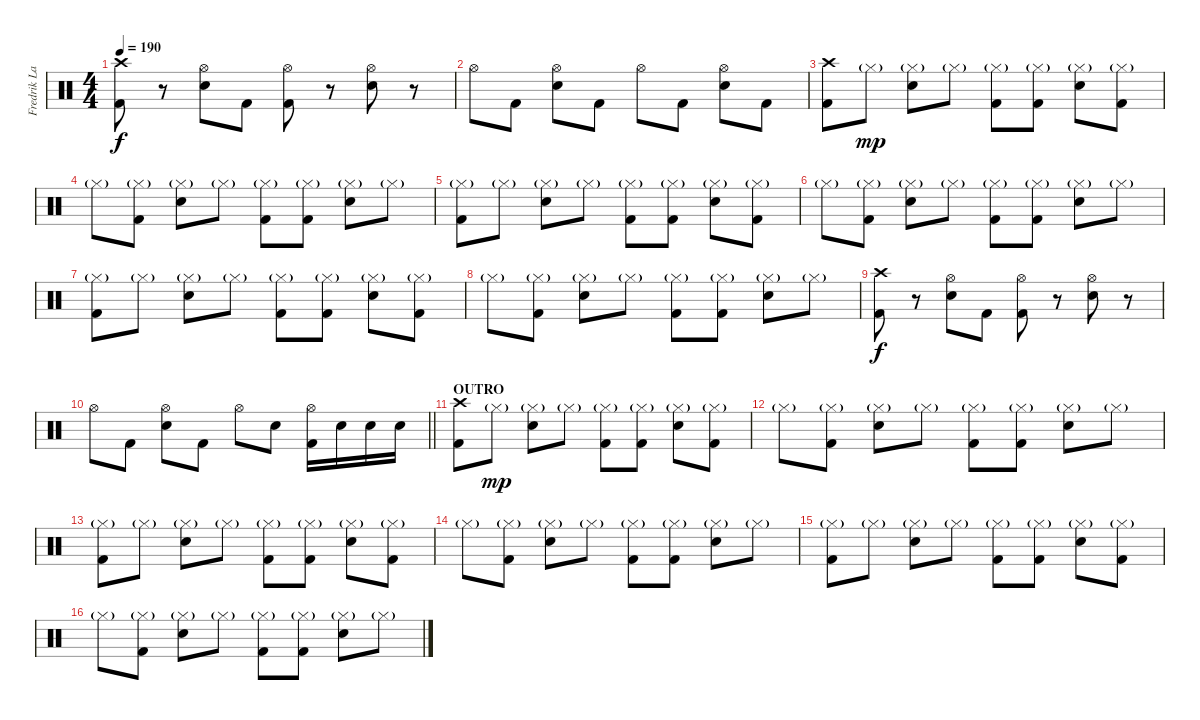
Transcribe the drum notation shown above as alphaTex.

\track ("Fredrik Larson" "Fredrik La") {instrument percussion}
\staff {score}
\articulation defaults
\ts (4 4)
\tempo 190
\clef neutral
\ks c
("Crash high (hit)" "Kick (hit) 2").8{dy f} r.8 ("Hi-Hat (open)" "Snare (hit) 2").8 "Kick (hit) 2".8 ("Hi-Hat (open)" "Kick (hit) 2").8 r.8 ("Hi-Hat (open)" "Snare (hit) 2").8 r.8 |
"Hi-Hat (open)".8 "Kick (hit) 2".8 ("Hi-Hat (open)" "Snare (hit) 2").8 "Kick (hit) 2".8 "Hi-Hat (open)".8 "Kick (hit) 2".8 ("Hi-Hat (open)" "Snare (hit) 2").8 "Kick (hit) 2".8 |
("Crash high (hit)" "Kick (hit) 2").8 "Hi-Hat (closed)"{g}.8{dy mp} ("Hi-Hat (closed)"{g} "Snare (hit) 2").8 "Hi-Hat (closed)"{g}.8 ("Hi-Hat (closed)"{g} "Kick (hit) 2").8 ("Hi-Hat (closed)"{g} "Kick (hit) 2").8 ("Hi-Hat (closed)"{g} "Snare (hit) 2").8 ("Hi-Hat (closed)"{g} "Kick (hit) 2").8 |
"Hi-Hat (closed)"{g}.8 ("Hi-Hat (closed)"{g} "Kick (hit) 2").8 ("Hi-Hat (closed)"{g} "Snare (hit) 2").8 "Hi-Hat (closed)"{g}.8 ("Hi-Hat (closed)"{g} "Kick (hit) 2").8 ("Hi-Hat (closed)"{g} "Kick (hit) 2").8 ("Hi-Hat (closed)"{g} "Snare (hit) 2").8 "Hi-Hat (closed)"{g}.8 |
("Hi-Hat (closed)"{g} "Kick (hit) 2").8 "Hi-Hat (closed)"{g}.8 ("Hi-Hat (closed)"{g} "Snare (hit) 2").8 "Hi-Hat (closed)"{g}.8 ("Hi-Hat (closed)"{g} "Kick (hit) 2").8 ("Hi-Hat (closed)"{g} "Kick (hit) 2").8 ("Hi-Hat (closed)"{g} "Snare (hit) 2").8 ("Hi-Hat (closed)"{g} "Kick (hit) 2").8 |
"Hi-Hat (closed)"{g}.8 ("Hi-Hat (closed)"{g} "Kick (hit) 2").8 ("Hi-Hat (closed)"{g} "Snare (hit) 2").8 "Hi-Hat (closed)"{g}.8 ("Hi-Hat (closed)"{g} "Kick (hit) 2").8 ("Hi-Hat (closed)"{g} "Kick (hit) 2").8 ("Hi-Hat (closed)"{g} "Snare (hit) 2").8 "Hi-Hat (closed)"{g}.8 |
("Hi-Hat (closed)"{g} "Kick (hit) 2").8 "Hi-Hat (closed)"{g}.8 ("Hi-Hat (closed)"{g} "Snare (hit) 2").8 "Hi-Hat (closed)"{g}.8 ("Hi-Hat (closed)"{g} "Kick (hit) 2").8 ("Hi-Hat (closed)"{g} "Kick (hit) 2").8 ("Hi-Hat (closed)"{g} "Snare (hit) 2").8 ("Hi-Hat (closed)"{g} "Kick (hit) 2").8 |
"Hi-Hat (closed)"{g}.8 ("Hi-Hat (closed)"{g} "Kick (hit) 2").8 ("Hi-Hat (closed)"{g} "Snare (hit) 2").8 "Hi-Hat (closed)"{g}.8 ("Hi-Hat (closed)"{g} "Kick (hit) 2").8 ("Hi-Hat (closed)"{g} "Kick (hit) 2").8 ("Hi-Hat (closed)"{g} "Snare (hit) 2").8 "Hi-Hat (closed)"{g}.8 |
("Crash high (hit)" "Kick (hit) 2").8{dy f} r.8 ("Hi-Hat (open)" "Snare (hit) 2").8 "Kick (hit) 2".8 ("Hi-Hat (open)" "Kick (hit) 2").8 r.8 ("Hi-Hat (open)" "Snare (hit) 2").8 r.8 |
\barLineRight lightlight "Hi-Hat (open)".8 "Kick (hit) 2".8
("Hi-Hat (open)" "Snare (hit) 2").8 "Kick (hit) 2".8 "Hi-Hat (open)".8 "Snare (hit) 2".8 ("Hi-Hat (open)" "Kick (hit) 2").16 "Snare (hit) 2".16 "Snare (hit) 2".16 "Snare (hit) 2".16 |
\section ("" "OUTRO")
("Crash high (hit)" "Kick (hit) 2").8 "Hi-Hat (closed)"{g}.8{dy mp} ("Hi-Hat (closed)"{g} "Snare (hit) 2").8 "Hi-Hat (closed)"{g}.8 ("Hi-Hat (closed)"{g} "Kick (hit) 2").8 ("Hi-Hat (closed)"{g} "Kick (hit) 2").8 ("Hi-Hat (closed)"{g} "Snare (hit) 2").8 ("Hi-Hat (closed)"{g} "Kick (hit) 2").8 |
"Hi-Hat (closed)"{g}.8 ("Hi-Hat (closed)"{g} "Kick (hit) 2").8 ("Hi-Hat (closed)"{g} "Snare (hit) 2").8 "Hi-Hat (closed)"{g}.8 ("Hi-Hat (closed)"{g} "Kick (hit) 2").8 ("Hi-Hat (closed)"{g} "Kick (hit) 2").8 ("Hi-Hat (closed)"{g} "Snare (hit) 2").8 "Hi-Hat (closed)"{g}.8 |
("Hi-Hat (closed)"{g} "Kick (hit) 2").8 "Hi-Hat (closed)"{g}.8 ("Hi-Hat (closed)"{g} "Snare (hit) 2").8 "Hi-Hat (closed)"{g}.8 ("Hi-Hat (closed)"{g} "Kick (hit) 2").8 ("Hi-Hat (closed)"{g} "Kick (hit) 2").8 ("Hi-Hat (closed)"{g} "Snare (hit) 2").8 ("Hi-Hat (closed)"{g} "Kick (hit) 2").8 |
"Hi-Hat (closed)"{g}.8 ("Hi-Hat (closed)"{g} "Kick (hit) 2").8 ("Hi-Hat (closed)"{g} "Snare (hit) 2").8 "Hi-Hat (closed)"{g}.8 ("Hi-Hat (closed)"{g} "Kick (hit) 2").8 ("Hi-Hat (closed)"{g} "Kick (hit) 2").8 ("Hi-Hat (closed)"{g} "Snare (hit) 2").8 "Hi-Hat (closed)"{g}.8 |
("Hi-Hat (closed)"{g} "Kick (hit) 2").8 "Hi-Hat (closed)"{g}.8 ("Hi-Hat (closed)"{g} "Snare (hit) 2").8 "Hi-Hat (closed)"{g}.8 ("Hi-Hat (closed)"{g} "Kick (hit) 2").8 ("Hi-Hat (closed)"{g} "Kick (hit) 2").8 ("Hi-Hat (closed)"{g} "Snare (hit) 2").8 ("Hi-Hat (closed)"{g} "Kick (hit) 2").8 |
"Hi-Hat (closed)"{g}.8 ("Hi-Hat (closed)"{g} "Kick (hit) 2").8 ("Hi-Hat (closed)"{g} "Snare (hit) 2").8 "Hi-Hat (closed)"{g}.8 ("Hi-Hat (closed)"{g} "Kick (hit) 2").8 ("Hi-Hat (closed)"{g} "Kick (hit) 2").8 ("Hi-Hat (closed)"{g} "Snare (hit) 2").8 "Hi-Hat (closed)"{g}.8
